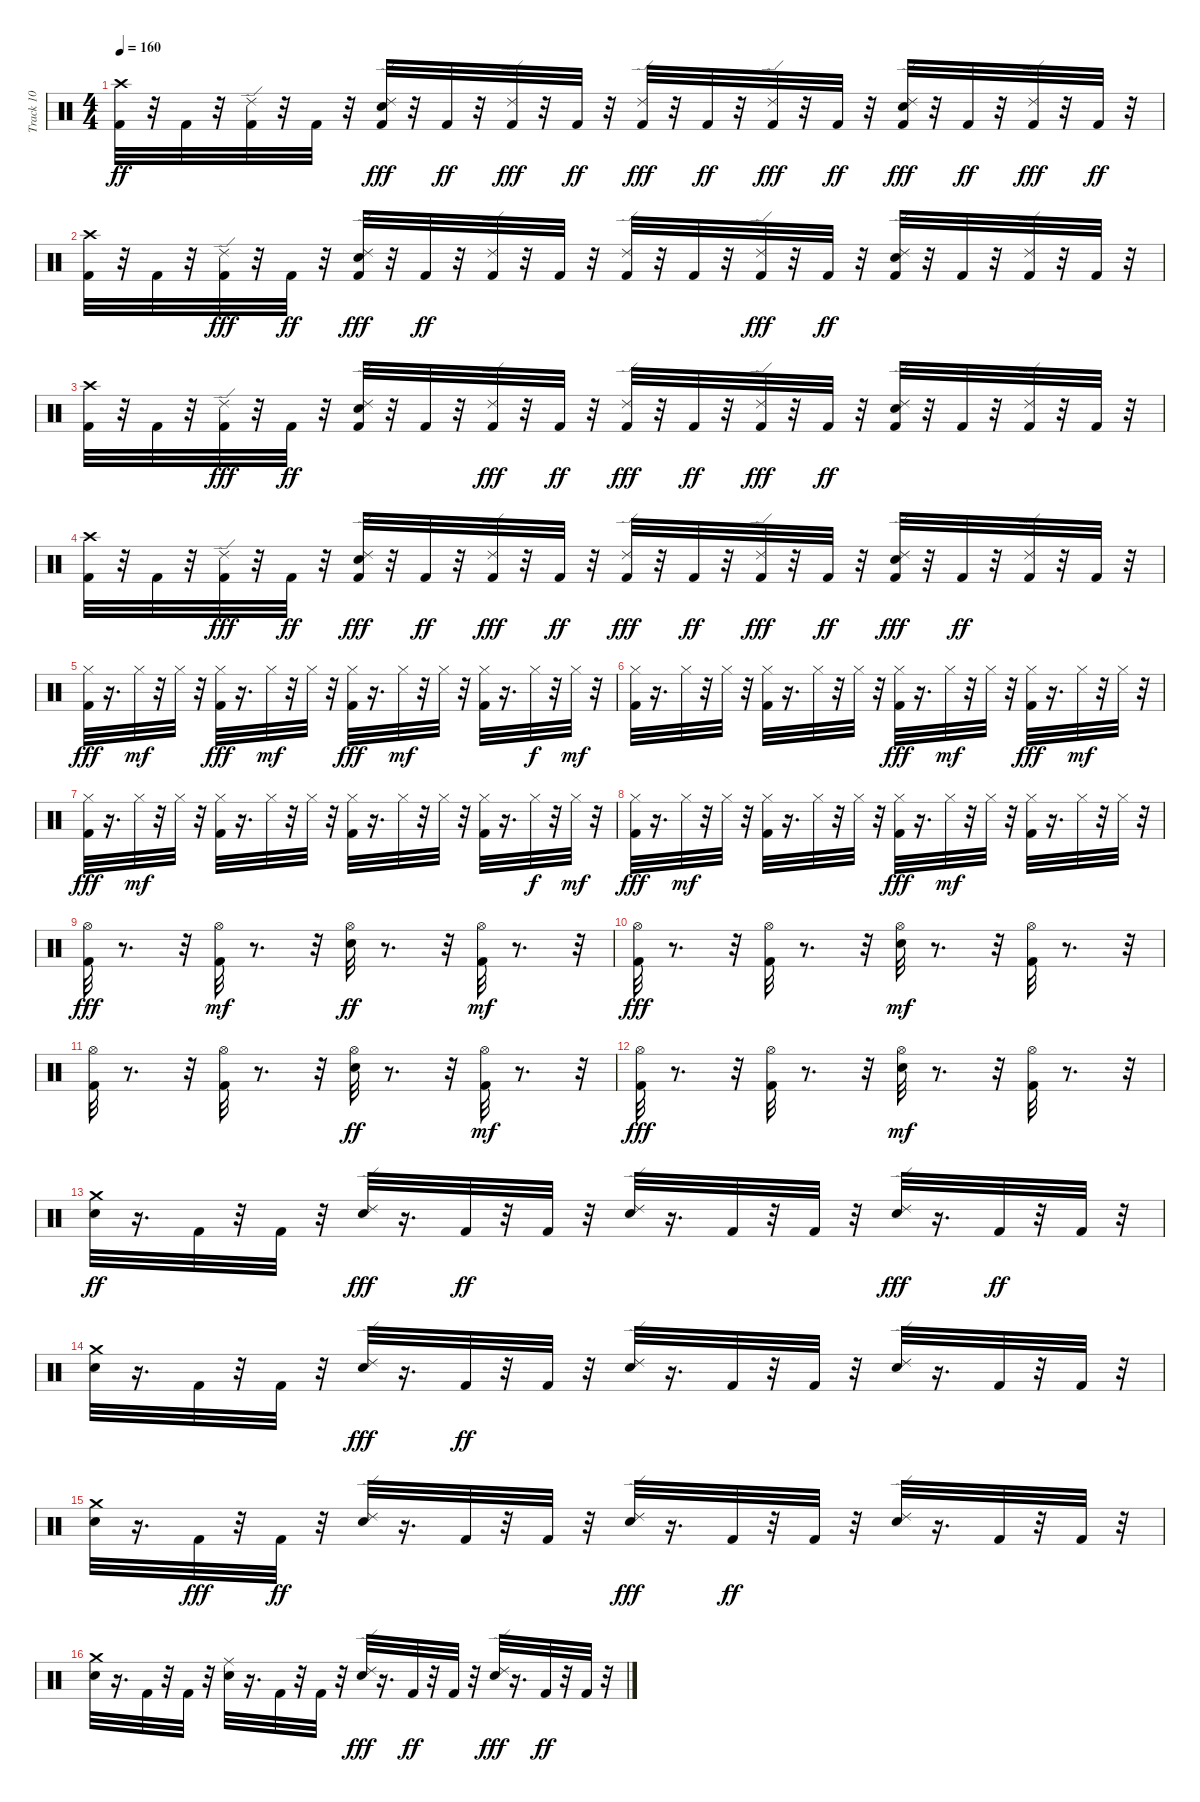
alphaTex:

\track ("Track 10" "Track 10") {instrument percussion}
\staff {score}
\articulation defaults
\ts (4 4)
\tempo 160
\clef neutral
\ks c
("Crash high (hit)" "Kick (hit) 2").32{dy ff} r.32 "Kick (hit) 2".32 r.32 ("Ride (edge) 2" "Kick (hit) 2").32 r.32 "Kick (hit) 2".32 r.32 ("Electric Snare (hit)" "Kick (hit) 2" "Ride (edge) 2").32{dy fff} r.32 "Kick (hit) 2".32{dy ff} r.32 ("Kick (hit) 2" "Ride (edge) 2").32{dy fff} r.32 "Kick (hit) 2".32{dy ff} r.32 ("Kick (hit) 2" "Ride (edge) 2").32{dy fff} r.32 "Kick (hit) 2".32{dy ff} r.32 ("Kick (hit) 2" "Ride (edge) 2").32{dy fff} r.32 "Kick (hit) 2".32{dy ff} r.32 ("Electric Snare (hit)" "Kick (hit) 2" "Ride (edge) 2").32{dy fff} r.32 "Kick (hit) 2".32{dy ff} r.32 ("Kick (hit) 2" "Ride (edge) 2").32{dy fff} r.32 "Kick (hit) 2".32{dy ff} r.32 |
("Crash high (hit)" "Kick (hit) 2").32 r.32 "Kick (hit) 2".32 r.32 ("Kick (hit) 2" "Ride (edge) 2").32{dy fff} r.32 "Kick (hit) 2".32{dy ff} r.32 ("Kick (hit) 2" "Electric Snare (hit)" "Ride (edge) 2").32{dy fff} r.32 "Kick (hit) 2".32{dy ff} r.32 ("Ride (edge) 2" "Kick (hit) 2").32 r.32 "Kick (hit) 2".32 r.32 ("Ride (edge) 2" "Kick (hit) 2").32 r.32 "Kick (hit) 2".32 r.32 ("Kick (hit) 2" "Ride (edge) 2").32{dy fff} r.32 "Kick (hit) 2".32{dy ff} r.32 ("Kick (hit) 2" "Ride (edge) 2" "Electric Snare (hit)").32 r.32 "Kick (hit) 2".32 r.32 ("Ride (edge) 2" "Kick (hit) 2").32 r.32 "Kick (hit) 2".32 r.32 |
("Crash high (hit)" "Kick (hit) 2").32 r.32 "Kick (hit) 2".32 r.32 ("Kick (hit) 2" "Ride (edge) 2").32{dy fff} r.32 "Kick (hit) 2".32{dy ff} r.32 ("Ride (edge) 2" "Electric Snare (hit)" "Kick (hit) 2").32 r.32 "Kick (hit) 2".32 r.32 ("Kick (hit) 2" "Ride (edge) 2").32{dy fff} r.32 "Kick (hit) 2".32{dy ff} r.32 ("Kick (hit) 2" "Ride (edge) 2").32{dy fff} r.32 "Kick (hit) 2".32{dy ff} r.32 ("Kick (hit) 2" "Ride (edge) 2").32{dy fff} r.32 "Kick (hit) 2".32{dy ff} r.32 ("Kick (hit) 2" "Ride (edge) 2" "Electric Snare (hit)").32 r.32 "Kick (hit) 2".32 r.32 ("Ride (edge) 2" "Kick (hit) 2").32 r.32 "Kick (hit) 2".32 r.32 |
("Kick (hit) 2" "Crash high (hit)").32 r.32 "Kick (hit) 2".32 r.32 ("Kick (hit) 2" "Ride (edge) 2").32{dy fff} r.32 "Kick (hit) 2".32{dy ff} r.32 ("Electric Snare (hit)" "Kick (hit) 2" "Ride (edge) 2").32{dy fff} r.32 "Kick (hit) 2".32{dy ff} r.32 ("Kick (hit) 2" "Ride (edge) 2").32{dy fff} r.32 "Kick (hit) 2".32{dy ff} r.32 ("Kick (hit) 2" "Ride (edge) 2").32{dy fff} r.32 "Kick (hit) 2".32{dy ff} r.32 ("Kick (hit) 2" "Ride (edge) 2").32{dy fff} r.32 "Kick (hit) 2".32{dy ff} r.32 ("Electric Snare (hit)" "Kick (hit) 2" "Ride (edge) 2").32{dy fff} r.32 "Kick (hit) 2".32{dy ff} r.32 ("Ride (edge) 2" "Kick (hit) 2").32 r.32 "Kick (hit) 2".32 r.32 |
("Hi-Hat (closed)" "Kick (hit) 2").32{dy fff} r.16{d} "Hi-Hat (closed)".32{dy mf} r.32 "Hi-Hat (closed)".32 r.32 ("Hi-Hat (closed)" "Kick (hit) 2").32{dy fff} r.16{d} "Hi-Hat (closed)".32{dy mf} r.32 "Hi-Hat (closed)".32 r.32 ("Hi-Hat (closed)" "Kick (hit) 2").32{dy fff} r.16{d} "Hi-Hat (closed)".32{dy mf} r.32 "Hi-Hat (closed)".32 r.32 ("Kick (hit) 2" "Hi-Hat (closed)").32 r.16{d} "Hi-Hat (closed)".32{dy f} r.32 "Hi-Hat (closed)".32{dy mf} r.32 |
("Kick (hit) 2" "Hi-Hat (closed)").32 r.16{d} "Hi-Hat (closed)".32 r.32 "Hi-Hat (closed)".32 r.32 ("Kick (hit) 2" "Hi-Hat (closed)").32 r.16{d} "Hi-Hat (closed)".32 r.32 "Hi-Hat (closed)".32 r.32 ("Hi-Hat (closed)" "Kick (hit) 2").32{dy fff} r.16{d} "Hi-Hat (closed)".32{dy mf} r.32 "Hi-Hat (closed)".32 r.32 ("Hi-Hat (closed)" "Kick (hit) 2").32{dy fff} r.16{d} "Hi-Hat (closed)".32{dy mf} r.32 "Hi-Hat (closed)".32 r.32 |
("Hi-Hat (closed)" "Kick (hit) 2").32{dy fff} r.16{d} "Hi-Hat (closed)".32{dy mf} r.32 "Hi-Hat (closed)".32 r.32 ("Kick (hit) 2" "Hi-Hat (closed)").32 r.16{d} "Hi-Hat (closed)".32 r.32 "Hi-Hat (closed)".32 r.32 ("Kick (hit) 2" "Hi-Hat (closed)").32 r.16{d} "Hi-Hat (closed)".32 r.32 "Hi-Hat (closed)".32 r.32 ("Kick (hit) 2" "Hi-Hat (closed)").32 r.16{d} "Hi-Hat (closed)".32{dy f} r.32 "Hi-Hat (closed)".32{dy mf} r.32 |
("Hi-Hat (closed)" "Kick (hit) 2").32{dy fff} r.16{d} "Hi-Hat (closed)".32{dy mf} r.32 "Hi-Hat (closed)".32 r.32 ("Kick (hit) 2" "Hi-Hat (closed)").32 r.16{d} "Hi-Hat (closed)".32 r.32 "Hi-Hat (closed)".32 r.32 ("Hi-Hat (closed)" "Kick (hit) 2").32{dy fff} r.16{d} "Hi-Hat (closed)".32{dy mf} r.32 "Hi-Hat (closed)".32 r.32 ("Kick (hit) 2" "Hi-Hat (closed)").32 r.16{d} "Hi-Hat (closed)".32 r.32 "Hi-Hat (closed)".32 r.32 |
("Hi-Hat (open)" "Kick (hit) 2").32{dy fff} r.8{d} r.32 ("Kick (hit) 2" "Hi-Hat (open)").32{dy mf} r.8{d} r.32 ("Hi-Hat (open)" "Electric Snare (hit)").32{dy ff} r.8{d} r.32 ("Kick (hit) 2" "Hi-Hat (open)").32{dy mf} r.8{d} r.32 |
("Hi-Hat (open)" "Kick (hit) 2").32{dy fff} r.8{d} r.32 ("Hi-Hat (open)" "Kick (hit) 2").32 r.8{d} r.32 ("Electric Snare (hit)" "Hi-Hat (open)").32{dy mf} r.8{d} r.32 ("Kick (hit) 2" "Hi-Hat (open)").32 r.8{d} r.32 |
("Kick (hit) 2" "Hi-Hat (open)").32 r.8{d} r.32 ("Kick (hit) 2" "Hi-Hat (open)").32 r.8{d} r.32 ("Hi-Hat (open)" "Electric Snare (hit)").32{dy ff} r.8{d} r.32 ("Hi-Hat (open)" "Kick (hit) 2").32{dy mf} r.8{d} r.32 |
("Hi-Hat (open)" "Kick (hit) 2").32{dy fff} r.8{d} r.32 ("Hi-Hat (open)" "Kick (hit) 2").32 r.8{d} r.32 ("Electric Snare (hit)" "Hi-Hat (open)").32{dy mf} r.8{d} r.32 ("Kick (hit) 2" "Hi-Hat (open)").32 r.8{d} r.32 |
("Crash medium (hit)" "Electric Snare (hit)").32{dy ff} r.16{d} "Kick (hit) 2".32 r.32 "Kick (hit) 2".32 r.32 ("Electric Snare (hit)" "Ride (edge) 2").32{dy fff} r.16{d} "Kick (hit) 2".32{dy ff} r.32 "Kick (hit) 2".32 r.32 ("Ride (edge) 2" "Electric Snare (hit)").32 r.16{d} "Kick (hit) 2".32 r.32 "Kick (hit) 2".32 r.32 ("Electric Snare (hit)" "Ride (edge) 2").32{dy fff} r.16{d} "Kick (hit) 2".32{dy ff} r.32 "Kick (hit) 2".32 r.32 |
("Electric Snare (hit)" "Crash medium (hit)").32 r.16{d} "Kick (hit) 2".32 r.32 "Kick (hit) 2".32 r.32 ("Electric Snare (hit)" "Ride (edge) 2").32{dy fff} r.16{d} "Kick (hit) 2".32{dy ff} r.32 "Kick (hit) 2".32 r.32 ("Ride (edge) 2" "Electric Snare (hit)").32 r.16{d} "Kick (hit) 2".32 r.32 "Kick (hit) 2".32 r.32 ("Ride (edge) 2" "Electric Snare (hit)").32 r.16{d} "Kick (hit) 2".32 r.32 "Kick (hit) 2".32 r.32 |
("Electric Snare (hit)" "Crash medium (hit)").32 r.16{d} "Kick (hit) 2".32{dy fff} r.32 "Kick (hit) 2".32{dy ff} r.32 ("Ride (edge) 2" "Electric Snare (hit)").32 r.16{d} "Kick (hit) 2".32 r.32 "Kick (hit) 2".32 r.32 ("Electric Snare (hit)" "Ride (edge) 2").32{dy fff} r.16{d} "Kick (hit) 2".32{dy ff} r.32 "Kick (hit) 2".32 r.32 ("Ride (edge) 2" "Electric Snare (hit)").32 r.16{d} "Kick (hit) 2".32 r.32 "Kick (hit) 2".32 r.32 |
("Electric Snare (hit)" "Crash medium (hit)").32 r.16{d} "Kick (hit) 2".32 r.32 "Kick (hit) 2".32 r.32 ("Ride (middle)" "Electric Snare (hit)").32 r.16{d} "Kick (hit) 2".32 r.32 "Kick (hit) 2".32 r.32 ("Electric Snare (hit)" "Ride (edge) 2").32{dy fff} r.16{d} "Kick (hit) 2".32{dy ff} r.32 "Kick (hit) 2".32 r.32 ("Electric Snare (hit)" "Ride (edge) 2").32{dy fff} r.16{d} "Kick (hit) 2".32{dy ff} r.32 "Kick (hit) 2".32 r.32
